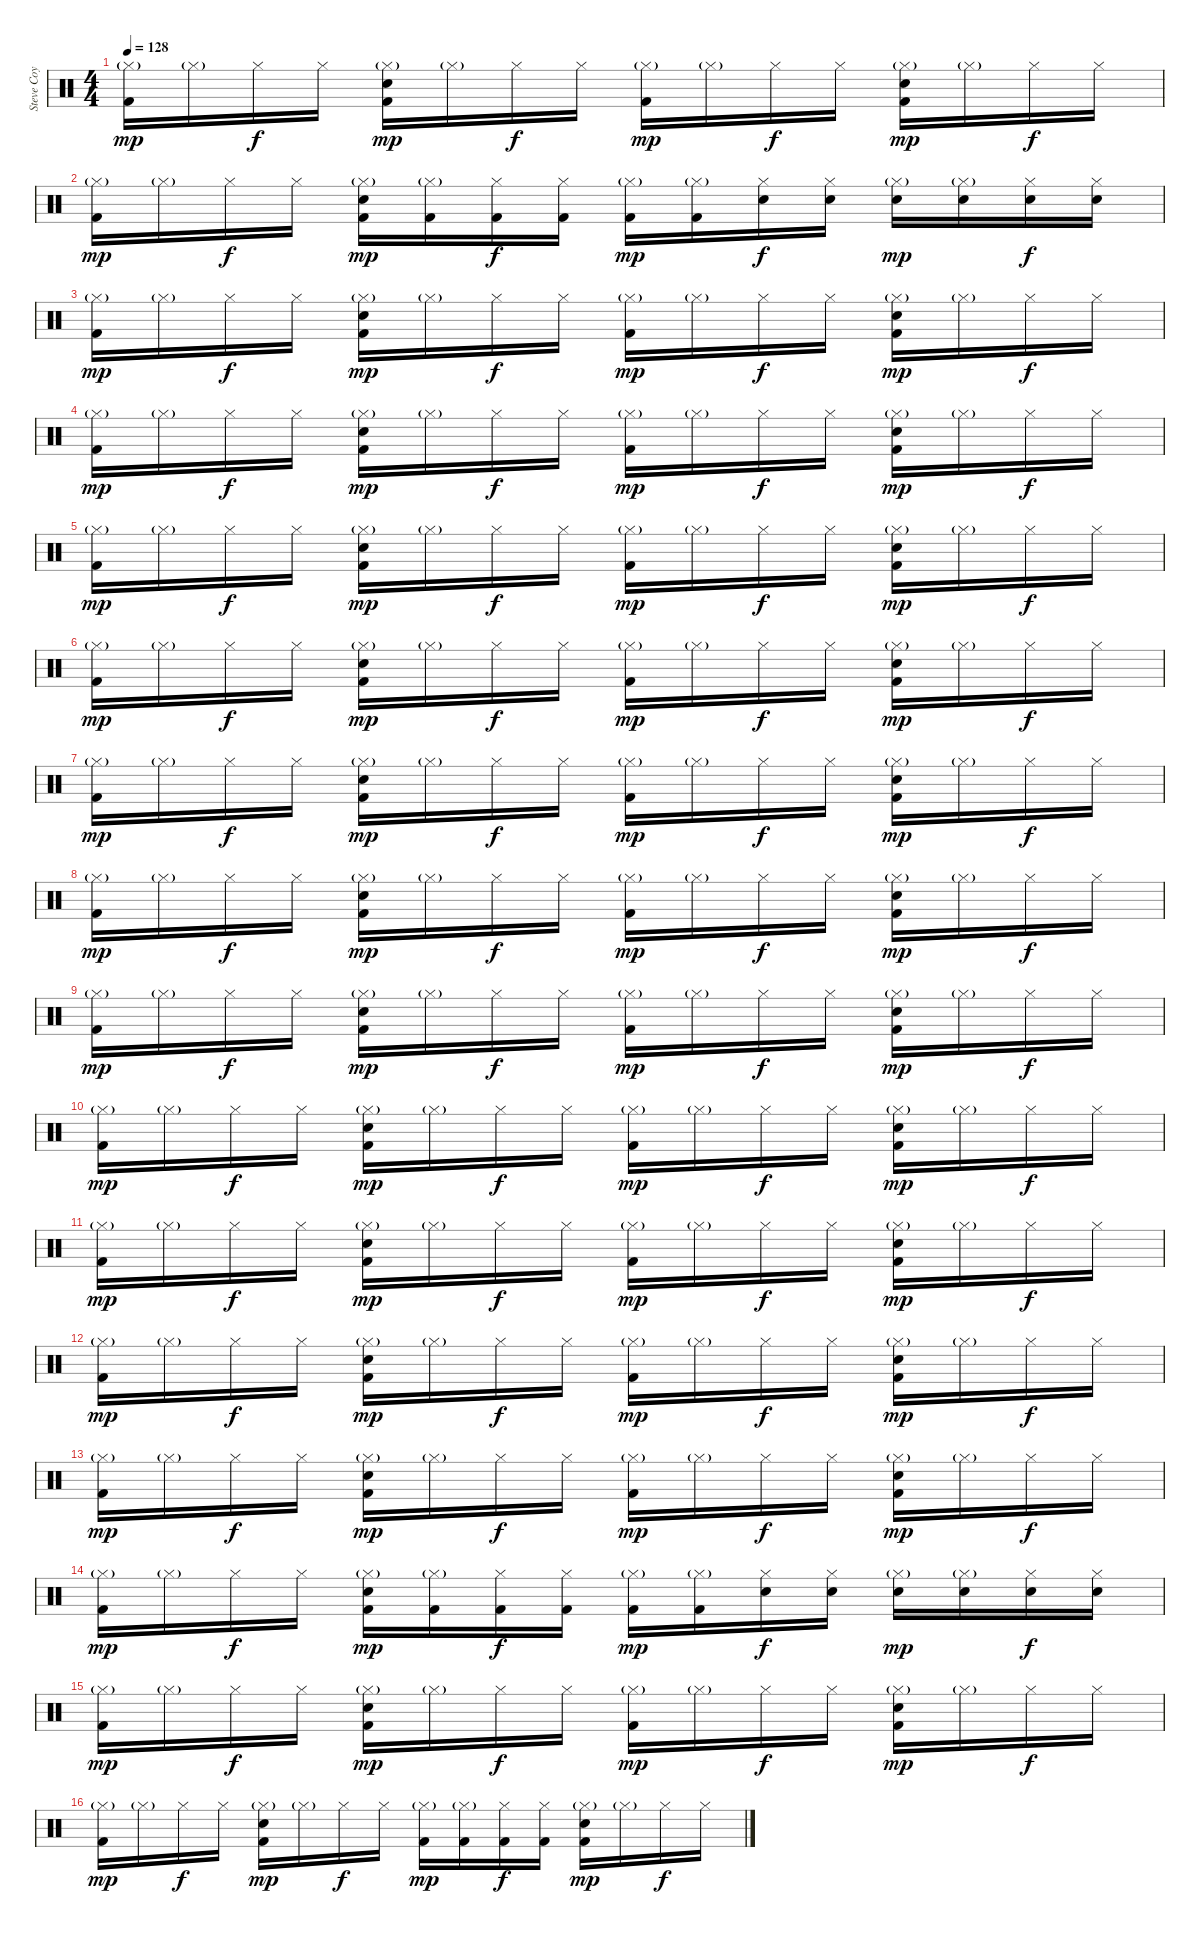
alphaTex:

\track ("Steve Coy" "Steve Coy") {instrument percussion}
\staff {score}
\articulation defaults
\ts (4 4)
\tempo 128
\clef neutral
\ks c
("Hi-Hat (closed)"{g} "Kick (hit) 2").16{dy mp} "Hi-Hat (closed)"{g}.16 "Hi-Hat (closed)".16{dy f} "Hi-Hat (closed)".16 ("Hi-Hat (closed)"{g} "Snare (hit) 2" "Kick (hit) 2").16{dy mp} "Hi-Hat (closed)"{g}.16 "Hi-Hat (closed)".16{dy f} "Hi-Hat (closed)".16 ("Hi-Hat (closed)"{g} "Kick (hit) 2").16{dy mp} "Hi-Hat (closed)"{g}.16 "Hi-Hat (closed)".16{dy f} "Hi-Hat (closed)".16 ("Hi-Hat (closed)"{g} "Snare (hit) 2" "Kick (hit) 2").16{dy mp} "Hi-Hat (closed)"{g}.16 "Hi-Hat (closed)".16{dy f} "Hi-Hat (closed)".16 |
("Hi-Hat (closed)"{g} "Kick (hit) 2").16{dy mp} "Hi-Hat (closed)"{g}.16 "Hi-Hat (closed)".16{dy f} "Hi-Hat (closed)".16 ("Hi-Hat (closed)"{g} "Snare (hit) 2" "Kick (hit) 2").16{dy mp} ("Hi-Hat (closed)"{g} "Kick (hit) 2").16 ("Hi-Hat (closed)" "Kick (hit) 2").16{dy f} ("Hi-Hat (closed)" "Kick (hit) 2").16 ("Hi-Hat (closed)"{g} "Kick (hit) 2").16{dy mp} ("Hi-Hat (closed)"{g} "Kick (hit) 2").16 ("Hi-Hat (closed)" "Snare (hit) 2").16{dy f} ("Hi-Hat (closed)" "Snare (hit) 2").16 ("Hi-Hat (closed)"{g} "Snare (hit) 2").16{dy mp} ("Hi-Hat (closed)"{g} "Snare (hit) 2").16 ("Hi-Hat (closed)" "Snare (hit) 2").16{dy f} ("Hi-Hat (closed)" "Snare (hit) 2").16 |
("Hi-Hat (closed)"{g} "Kick (hit) 2").16{dy mp} "Hi-Hat (closed)"{g}.16 "Hi-Hat (closed)".16{dy f} "Hi-Hat (closed)".16 ("Hi-Hat (closed)"{g} "Snare (hit) 2" "Kick (hit) 2").16{dy mp} "Hi-Hat (closed)"{g}.16 "Hi-Hat (closed)".16{dy f} "Hi-Hat (closed)".16 ("Hi-Hat (closed)"{g} "Kick (hit) 2").16{dy mp} "Hi-Hat (closed)"{g}.16 "Hi-Hat (closed)".16{dy f} "Hi-Hat (closed)".16 ("Hi-Hat (closed)"{g} "Snare (hit) 2" "Kick (hit) 2").16{dy mp} "Hi-Hat (closed)"{g}.16 "Hi-Hat (closed)".16{dy f} "Hi-Hat (closed)".16 |
("Hi-Hat (closed)"{g} "Kick (hit) 2").16{dy mp} "Hi-Hat (closed)"{g}.16 "Hi-Hat (closed)".16{dy f} "Hi-Hat (closed)".16 ("Hi-Hat (closed)"{g} "Snare (hit) 2" "Kick (hit) 2").16{dy mp} "Hi-Hat (closed)"{g}.16 "Hi-Hat (closed)".16{dy f} "Hi-Hat (closed)".16 ("Hi-Hat (closed)"{g} "Kick (hit) 2").16{dy mp} "Hi-Hat (closed)"{g}.16 "Hi-Hat (closed)".16{dy f} "Hi-Hat (closed)".16 ("Hi-Hat (closed)"{g} "Snare (hit) 2" "Kick (hit) 2").16{dy mp} "Hi-Hat (closed)"{g}.16 "Hi-Hat (closed)".16{dy f} "Hi-Hat (closed)".16 |
("Hi-Hat (closed)"{g} "Kick (hit) 2").16{dy mp} "Hi-Hat (closed)"{g}.16 "Hi-Hat (closed)".16{dy f} "Hi-Hat (closed)".16 ("Hi-Hat (closed)"{g} "Snare (hit) 2" "Kick (hit) 2").16{dy mp} "Hi-Hat (closed)"{g}.16 "Hi-Hat (closed)".16{dy f} "Hi-Hat (closed)".16 ("Hi-Hat (closed)"{g} "Kick (hit) 2").16{dy mp} "Hi-Hat (closed)"{g}.16 "Hi-Hat (closed)".16{dy f} "Hi-Hat (closed)".16 ("Hi-Hat (closed)"{g} "Snare (hit) 2" "Kick (hit) 2").16{dy mp} "Hi-Hat (closed)"{g}.16 "Hi-Hat (closed)".16{dy f} "Hi-Hat (closed)".16 |
("Hi-Hat (closed)"{g} "Kick (hit) 2").16{dy mp} "Hi-Hat (closed)"{g}.16 "Hi-Hat (closed)".16{dy f} "Hi-Hat (closed)".16 ("Hi-Hat (closed)"{g} "Snare (hit) 2" "Kick (hit) 2").16{dy mp} "Hi-Hat (closed)"{g}.16 "Hi-Hat (closed)".16{dy f} "Hi-Hat (closed)".16 ("Hi-Hat (closed)"{g} "Kick (hit) 2").16{dy mp} "Hi-Hat (closed)"{g}.16 "Hi-Hat (closed)".16{dy f} "Hi-Hat (closed)".16 ("Hi-Hat (closed)"{g} "Snare (hit) 2" "Kick (hit) 2").16{dy mp} "Hi-Hat (closed)"{g}.16 "Hi-Hat (closed)".16{dy f} "Hi-Hat (closed)".16 |
("Hi-Hat (closed)"{g} "Kick (hit) 2").16{dy mp} "Hi-Hat (closed)"{g}.16 "Hi-Hat (closed)".16{dy f} "Hi-Hat (closed)".16 ("Hi-Hat (closed)"{g} "Snare (hit) 2" "Kick (hit) 2").16{dy mp} "Hi-Hat (closed)"{g}.16 "Hi-Hat (closed)".16{dy f} "Hi-Hat (closed)".16 ("Hi-Hat (closed)"{g} "Kick (hit) 2").16{dy mp} "Hi-Hat (closed)"{g}.16 "Hi-Hat (closed)".16{dy f} "Hi-Hat (closed)".16 ("Hi-Hat (closed)"{g} "Snare (hit) 2" "Kick (hit) 2").16{dy mp} "Hi-Hat (closed)"{g}.16 "Hi-Hat (closed)".16{dy f} "Hi-Hat (closed)".16 |
("Hi-Hat (closed)"{g} "Kick (hit) 2").16{dy mp} "Hi-Hat (closed)"{g}.16 "Hi-Hat (closed)".16{dy f} "Hi-Hat (closed)".16 ("Hi-Hat (closed)"{g} "Snare (hit) 2" "Kick (hit) 2").16{dy mp} "Hi-Hat (closed)"{g}.16 "Hi-Hat (closed)".16{dy f} "Hi-Hat (closed)".16 ("Hi-Hat (closed)"{g} "Kick (hit) 2").16{dy mp} "Hi-Hat (closed)"{g}.16 "Hi-Hat (closed)".16{dy f} "Hi-Hat (closed)".16 ("Hi-Hat (closed)"{g} "Snare (hit) 2" "Kick (hit) 2").16{dy mp} "Hi-Hat (closed)"{g}.16 "Hi-Hat (closed)".16{dy f} "Hi-Hat (closed)".16 |
("Hi-Hat (closed)"{g} "Kick (hit) 2").16{dy mp} "Hi-Hat (closed)"{g}.16 "Hi-Hat (closed)".16{dy f} "Hi-Hat (closed)".16 ("Hi-Hat (closed)"{g} "Snare (hit) 2" "Kick (hit) 2").16{dy mp} "Hi-Hat (closed)"{g}.16 "Hi-Hat (closed)".16{dy f} "Hi-Hat (closed)".16 ("Hi-Hat (closed)"{g} "Kick (hit) 2").16{dy mp} "Hi-Hat (closed)"{g}.16 "Hi-Hat (closed)".16{dy f} "Hi-Hat (closed)".16 ("Hi-Hat (closed)"{g} "Snare (hit) 2" "Kick (hit) 2").16{dy mp} "Hi-Hat (closed)"{g}.16 "Hi-Hat (closed)".16{dy f} "Hi-Hat (closed)".16 |
("Hi-Hat (closed)"{g} "Kick (hit) 2").16{dy mp} "Hi-Hat (closed)"{g}.16 "Hi-Hat (closed)".16{dy f} "Hi-Hat (closed)".16 ("Hi-Hat (closed)"{g} "Snare (hit) 2" "Kick (hit) 2").16{dy mp} "Hi-Hat (closed)"{g}.16 "Hi-Hat (closed)".16{dy f} "Hi-Hat (closed)".16 ("Hi-Hat (closed)"{g} "Kick (hit) 2").16{dy mp} "Hi-Hat (closed)"{g}.16 "Hi-Hat (closed)".16{dy f} "Hi-Hat (closed)".16 ("Hi-Hat (closed)"{g} "Snare (hit) 2" "Kick (hit) 2").16{dy mp} "Hi-Hat (closed)"{g}.16 "Hi-Hat (closed)".16{dy f} "Hi-Hat (closed)".16 |
("Hi-Hat (closed)"{g} "Kick (hit) 2").16{dy mp} "Hi-Hat (closed)"{g}.16 "Hi-Hat (closed)".16{dy f} "Hi-Hat (closed)".16 ("Hi-Hat (closed)"{g} "Snare (hit) 2" "Kick (hit) 2").16{dy mp} "Hi-Hat (closed)"{g}.16 "Hi-Hat (closed)".16{dy f} "Hi-Hat (closed)".16 ("Hi-Hat (closed)"{g} "Kick (hit) 2").16{dy mp} "Hi-Hat (closed)"{g}.16 "Hi-Hat (closed)".16{dy f} "Hi-Hat (closed)".16 ("Hi-Hat (closed)"{g} "Snare (hit) 2" "Kick (hit) 2").16{dy mp} "Hi-Hat (closed)"{g}.16 "Hi-Hat (closed)".16{dy f} "Hi-Hat (closed)".16 |
("Hi-Hat (closed)"{g} "Kick (hit) 2").16{dy mp} "Hi-Hat (closed)"{g}.16 "Hi-Hat (closed)".16{dy f} "Hi-Hat (closed)".16 ("Hi-Hat (closed)"{g} "Snare (hit) 2" "Kick (hit) 2").16{dy mp} "Hi-Hat (closed)"{g}.16 "Hi-Hat (closed)".16{dy f} "Hi-Hat (closed)".16 ("Hi-Hat (closed)"{g} "Kick (hit) 2").16{dy mp} "Hi-Hat (closed)"{g}.16 "Hi-Hat (closed)".16{dy f} "Hi-Hat (closed)".16 ("Hi-Hat (closed)"{g} "Snare (hit) 2" "Kick (hit) 2").16{dy mp} "Hi-Hat (closed)"{g}.16 "Hi-Hat (closed)".16{dy f} "Hi-Hat (closed)".16 |
("Hi-Hat (closed)"{g} "Kick (hit) 2").16{dy mp} "Hi-Hat (closed)"{g}.16 "Hi-Hat (closed)".16{dy f} "Hi-Hat (closed)".16 ("Hi-Hat (closed)"{g} "Snare (hit) 2" "Kick (hit) 2").16{dy mp} "Hi-Hat (closed)"{g}.16 "Hi-Hat (closed)".16{dy f} "Hi-Hat (closed)".16 ("Hi-Hat (closed)"{g} "Kick (hit) 2").16{dy mp} "Hi-Hat (closed)"{g}.16 "Hi-Hat (closed)".16{dy f} "Hi-Hat (closed)".16 ("Hi-Hat (closed)"{g} "Snare (hit) 2" "Kick (hit) 2").16{dy mp} "Hi-Hat (closed)"{g}.16 "Hi-Hat (closed)".16{dy f} "Hi-Hat (closed)".16 |
("Hi-Hat (closed)"{g} "Kick (hit) 2").16{dy mp} "Hi-Hat (closed)"{g}.16 "Hi-Hat (closed)".16{dy f} "Hi-Hat (closed)".16 ("Hi-Hat (closed)"{g} "Snare (hit) 2" "Kick (hit) 2").16{dy mp} ("Hi-Hat (closed)"{g} "Kick (hit) 2").16 ("Hi-Hat (closed)" "Kick (hit) 2").16{dy f} ("Hi-Hat (closed)" "Kick (hit) 2").16 ("Hi-Hat (closed)"{g} "Kick (hit) 2").16{dy mp} ("Hi-Hat (closed)"{g} "Kick (hit) 2").16 ("Hi-Hat (closed)" "Snare (hit) 2").16{dy f} ("Hi-Hat (closed)" "Snare (hit) 2").16 ("Hi-Hat (closed)"{g} "Snare (hit) 2").16{dy mp} ("Hi-Hat (closed)"{g} "Snare (hit) 2").16 ("Hi-Hat (closed)" "Snare (hit) 2").16{dy f} ("Hi-Hat (closed)" "Snare (hit) 2").16 |
("Hi-Hat (closed)"{g} "Kick (hit) 2").16{dy mp} "Hi-Hat (closed)"{g}.16 "Hi-Hat (closed)".16{dy f} "Hi-Hat (closed)".16 ("Hi-Hat (closed)"{g} "Snare (hit) 2" "Kick (hit) 2").16{dy mp} "Hi-Hat (closed)"{g}.16 "Hi-Hat (closed)".16{dy f} "Hi-Hat (closed)".16 ("Hi-Hat (closed)"{g} "Kick (hit) 2").16{dy mp} "Hi-Hat (closed)"{g}.16 "Hi-Hat (closed)".16{dy f} "Hi-Hat (closed)".16 ("Hi-Hat (closed)"{g} "Snare (hit) 2" "Kick (hit) 2").16{dy mp} "Hi-Hat (closed)"{g}.16 "Hi-Hat (closed)".16{dy f} "Hi-Hat (closed)".16 |
("Hi-Hat (closed)"{g} "Kick (hit) 2").16{dy mp} "Hi-Hat (closed)"{g}.16 "Hi-Hat (closed)".16{dy f} "Hi-Hat (closed)".16 ("Hi-Hat (closed)"{g} "Snare (hit) 2" "Kick (hit) 2").16{dy mp} "Hi-Hat (closed)"{g}.16 "Hi-Hat (closed)".16{dy f} "Hi-Hat (closed)".16 ("Hi-Hat (closed)"{g} "Kick (hit) 2").16{dy mp} ("Hi-Hat (closed)"{g} "Kick (hit) 2").16 ("Hi-Hat (closed)" "Kick (hit) 2").16{dy f} ("Hi-Hat (closed)" "Kick (hit) 2").16 ("Hi-Hat (closed)"{g} "Snare (hit) 2" "Kick (hit) 2").16{dy mp} "Hi-Hat (closed)"{g}.16 "Hi-Hat (closed)".16{dy f} "Hi-Hat (closed)".16
